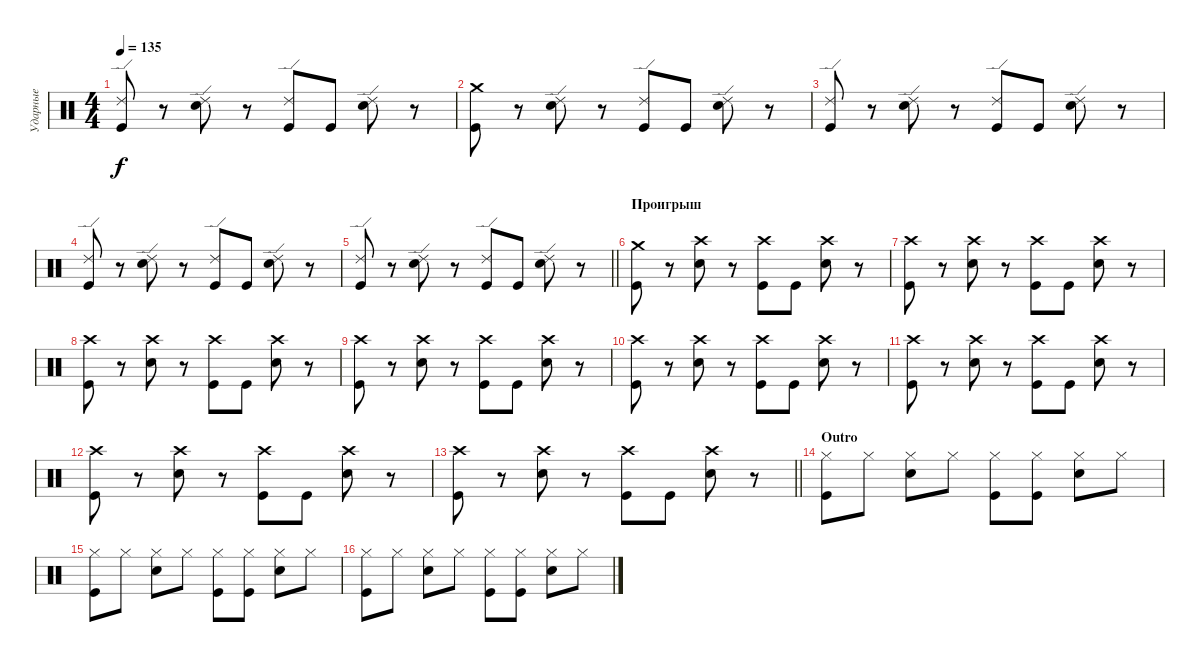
\track ("Ударные" "Ударные") {instrument percussion}
\staff {score}
\articulation defaults
\ts (4 4)
\tempo 135
\clef neutral
\ks c
("Ride (edge) 2" "Kick (hit)").8{dy f} r.8 ("Ride (edge) 2" "Electric Snare (hit)").8 r.8 ("Ride (edge) 2" "Kick (hit)").8 "Kick (hit)".8 ("Ride (edge) 2" "Electric Snare (hit)").8 r.8 |
("Crash medium (hit)" "Kick (hit)").8 r.8 ("Ride (edge) 2" "Electric Snare (hit)").8 r.8 ("Ride (edge) 2" "Kick (hit)").8 "Kick (hit)".8 ("Ride (edge) 2" "Electric Snare (hit)").8 r.8 |
("Ride (edge) 2" "Kick (hit)").8 r.8 ("Ride (edge) 2" "Electric Snare (hit)").8 r.8 ("Ride (edge) 2" "Kick (hit)").8 "Kick (hit)".8 ("Ride (edge) 2" "Electric Snare (hit)").8 r.8 |
("Ride (edge) 2" "Kick (hit)").8 r.8 ("Ride (edge) 2" "Electric Snare (hit)").8 r.8 ("Ride (edge) 2" "Kick (hit)").8 "Kick (hit)".8 ("Ride (edge) 2" "Electric Snare (hit)").8 r.8 |
\barLineRight lightlight
("Ride (edge) 2" "Kick (hit)").8 r.8 ("Ride (edge) 2" "Electric Snare (hit)").8 r.8 ("Ride (edge) 2" "Kick (hit)").8 "Kick (hit)".8 ("Ride (edge) 2" "Electric Snare (hit)").8 r.8 |
\section ("" "Проигрыш")
("Crash medium (hit)" "Kick (hit)").8 r.8 ("Crash high (hit)" "Electric Snare (hit)").8 r.8 ("Crash high (hit)" "Kick (hit)").8 "Kick (hit)".8 ("Crash high (hit)" "Electric Snare (hit)").8 r.8 |
("Crash high (hit)" "Kick (hit)").8 r.8 ("Crash high (hit)" "Electric Snare (hit)").8 r.8 ("Crash high (hit)" "Kick (hit)").8 "Kick (hit)".8 ("Crash high (hit)" "Electric Snare (hit)").8 r.8 |
("Crash high (hit)" "Kick (hit)").8 r.8 ("Crash high (hit)" "Electric Snare (hit)").8 r.8 ("Crash high (hit)" "Kick (hit)").8 "Kick (hit)".8 ("Crash high (hit)" "Electric Snare (hit)").8 r.8 |
("Crash high (hit)" "Kick (hit)").8 r.8 ("Crash high (hit)" "Electric Snare (hit)").8 r.8 ("Crash high (hit)" "Kick (hit)").8 "Kick (hit)".8 ("Crash high (hit)" "Electric Snare (hit)").8 r.8 |
("Crash high (hit)" "Kick (hit)").8 r.8 ("Crash high (hit)" "Electric Snare (hit)").8 r.8 ("Crash high (hit)" "Kick (hit)").8 "Kick (hit)".8 ("Crash high (hit)" "Electric Snare (hit)").8 r.8 |
("Crash high (hit)" "Kick (hit)").8 r.8 ("Crash high (hit)" "Electric Snare (hit)").8 r.8 ("Crash high (hit)" "Kick (hit)").8 "Kick (hit)".8 ("Crash high (hit)" "Electric Snare (hit)").8 r.8 |
("Crash high (hit)" "Kick (hit)").8 r.8 ("Crash high (hit)" "Electric Snare (hit)").8 r.8 ("Crash high (hit)" "Kick (hit)").8 "Kick (hit)".8 ("Crash high (hit)" "Electric Snare (hit)").8 r.8 |
\barLineRight lightlight
("Crash high (hit)" "Kick (hit)").8 r.8 ("Crash high (hit)" "Electric Snare (hit)").8 r.8 ("Crash high (hit)" "Kick (hit)").8 "Kick (hit)".8 ("Crash high (hit)" "Electric Snare (hit)").8 r.8 |
\section ("" "Outro")
("Hi-Hat (closed)" "Kick (hit)").8 "Hi-Hat (closed)".8 ("Hi-Hat (closed)" "Electric Snare (hit)").8 "Hi-Hat (closed)".8 ("Hi-Hat (closed)" "Kick (hit)").8 ("Hi-Hat (closed)" "Kick (hit)").8 ("Hi-Hat (closed)" "Electric Snare (hit)").8 "Hi-Hat (closed)".8 |
("Hi-Hat (closed)" "Kick (hit)").8 "Hi-Hat (closed)".8 ("Hi-Hat (closed)" "Electric Snare (hit)").8 "Hi-Hat (closed)".8 ("Hi-Hat (closed)" "Kick (hit)").8 ("Hi-Hat (closed)" "Kick (hit)").8 ("Hi-Hat (closed)" "Electric Snare (hit)").8 "Hi-Hat (closed)".8 |
("Hi-Hat (closed)" "Kick (hit)").8 "Hi-Hat (closed)".8 ("Hi-Hat (closed)" "Electric Snare (hit)").8 "Hi-Hat (closed)".8 ("Hi-Hat (closed)" "Kick (hit)").8 ("Hi-Hat (closed)" "Kick (hit)").8 ("Hi-Hat (closed)" "Electric Snare (hit)").8 "Hi-Hat (closed)".8
